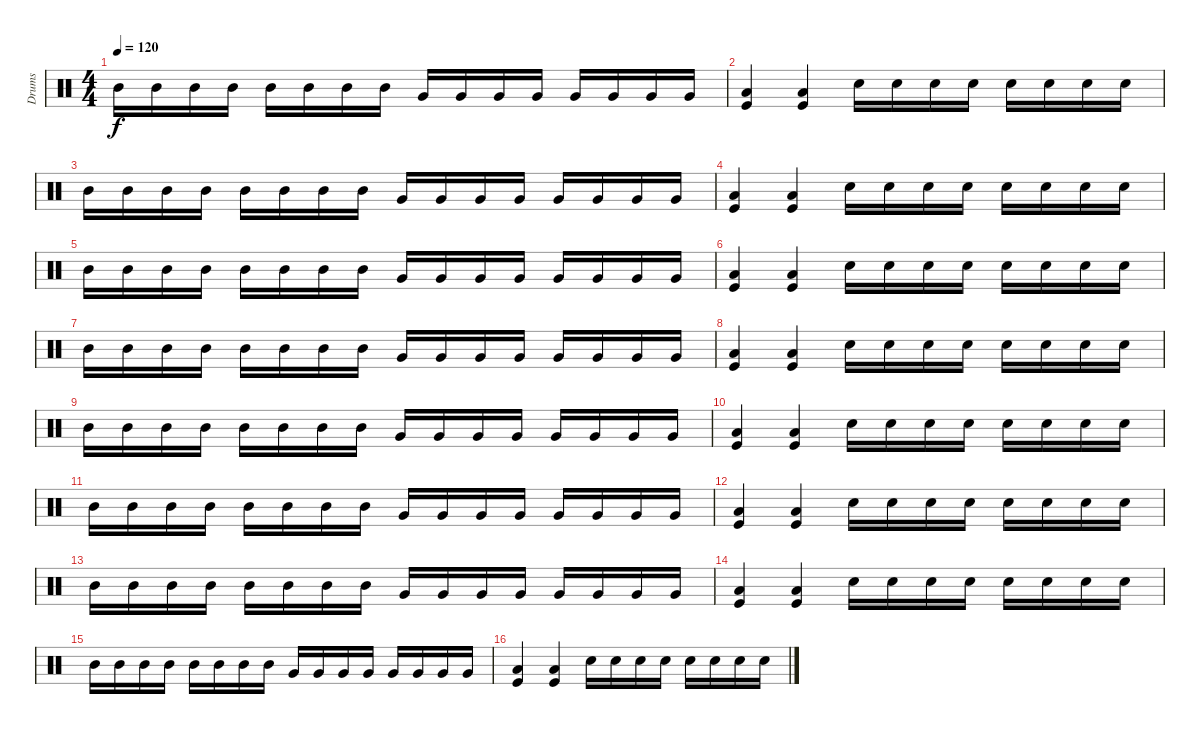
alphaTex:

\track ("Drums" "Drums") {instrument percussion}
\staff {score}
\articulation defaults
\ts (4 4)
\tempo 120
\clef neutral
\ks c "Mid Tom (hit)".16{dy f} "Mid Tom (hit)".16 "Mid Tom (hit)".16 "Mid Tom (hit)".16 "Mid Tom (hit)".16 "Mid Tom (hit)".16 "Mid Tom (hit)".16 "Mid Tom (hit)".16 "Very Low Tom (hit)".16 "Very Low Tom (hit)".16 "Very Low Tom (hit)".16 "Very Low Tom (hit)".16 "Very Low Tom (hit)".16 "Very Low Tom (hit)".16 "Very Low Tom (hit)".16 "Very Low Tom (hit)".16
|
("Kick (hit)" "Low Floor Tom (hit)").4 ("Kick (hit)" "Low Floor Tom (hit)").4 "Electric Snare (hit)".16 "Electric Snare (hit)".16 "Electric Snare (hit)".16 "Electric Snare (hit)".16 "Electric Snare (hit)".16 "Electric Snare (hit)".16 "Electric Snare (hit)".16 "Electric Snare (hit)".16 |
"Mid Tom (hit)".16 "Mid Tom (hit)".16 "Mid Tom (hit)".16 "Mid Tom (hit)".16 "Mid Tom (hit)".16 "Mid Tom (hit)".16 "Mid Tom (hit)".16 "Mid Tom (hit)".16 "Very Low Tom (hit)".16 "Very Low Tom (hit)".16 "Very Low Tom (hit)".16 "Very Low Tom (hit)".16 "Very Low Tom (hit)".16 "Very Low Tom (hit)".16 "Very Low Tom (hit)".16 "Very Low Tom (hit)".16 |
("Kick (hit)" "Low Floor Tom (hit)").4 ("Kick (hit)" "Low Floor Tom (hit)").4 "Electric Snare (hit)".16 "Electric Snare (hit)".16 "Electric Snare (hit)".16 "Electric Snare (hit)".16 "Electric Snare (hit)".16 "Electric Snare (hit)".16 "Electric Snare (hit)".16 "Electric Snare (hit)".16 |
"Mid Tom (hit)".16 "Mid Tom (hit)".16 "Mid Tom (hit)".16 "Mid Tom (hit)".16 "Mid Tom (hit)".16 "Mid Tom (hit)".16 "Mid Tom (hit)".16 "Mid Tom (hit)".16 "Very Low Tom (hit)".16 "Very Low Tom (hit)".16 "Very Low Tom (hit)".16 "Very Low Tom (hit)".16 "Very Low Tom (hit)".16 "Very Low Tom (hit)".16 "Very Low Tom (hit)".16 "Very Low Tom (hit)".16 |
("Kick (hit)" "Low Floor Tom (hit)").4 ("Kick (hit)" "Low Floor Tom (hit)").4 "Electric Snare (hit)".16 "Electric Snare (hit)".16 "Electric Snare (hit)".16 "Electric Snare (hit)".16 "Electric Snare (hit)".16 "Electric Snare (hit)".16 "Electric Snare (hit)".16 "Electric Snare (hit)".16 |
"Mid Tom (hit)".16 "Mid Tom (hit)".16 "Mid Tom (hit)".16 "Mid Tom (hit)".16 "Mid Tom (hit)".16 "Mid Tom (hit)".16 "Mid Tom (hit)".16 "Mid Tom (hit)".16 "Very Low Tom (hit)".16 "Very Low Tom (hit)".16 "Very Low Tom (hit)".16 "Very Low Tom (hit)".16 "Very Low Tom (hit)".16 "Very Low Tom (hit)".16 "Very Low Tom (hit)".16 "Very Low Tom (hit)".16 |
("Kick (hit)" "Low Floor Tom (hit)").4 ("Kick (hit)" "Low Floor Tom (hit)").4 "Electric Snare (hit)".16 "Electric Snare (hit)".16 "Electric Snare (hit)".16 "Electric Snare (hit)".16 "Electric Snare (hit)".16 "Electric Snare (hit)".16 "Electric Snare (hit)".16 "Electric Snare (hit)".16 |
"Mid Tom (hit)".16 "Mid Tom (hit)".16 "Mid Tom (hit)".16 "Mid Tom (hit)".16 "Mid Tom (hit)".16 "Mid Tom (hit)".16 "Mid Tom (hit)".16 "Mid Tom (hit)".16 "Very Low Tom (hit)".16 "Very Low Tom (hit)".16 "Very Low Tom (hit)".16 "Very Low Tom (hit)".16 "Very Low Tom (hit)".16 "Very Low Tom (hit)".16 "Very Low Tom (hit)".16 "Very Low Tom (hit)".16 |
("Kick (hit)" "Low Floor Tom (hit)").4 ("Kick (hit)" "Low Floor Tom (hit)").4 "Electric Snare (hit)".16 "Electric Snare (hit)".16 "Electric Snare (hit)".16 "Electric Snare (hit)".16 "Electric Snare (hit)".16 "Electric Snare (hit)".16 "Electric Snare (hit)".16 "Electric Snare (hit)".16 |
"Mid Tom (hit)".16 "Mid Tom (hit)".16 "Mid Tom (hit)".16 "Mid Tom (hit)".16 "Mid Tom (hit)".16 "Mid Tom (hit)".16 "Mid Tom (hit)".16 "Mid Tom (hit)".16 "Very Low Tom (hit)".16 "Very Low Tom (hit)".16 "Very Low Tom (hit)".16 "Very Low Tom (hit)".16 "Very Low Tom (hit)".16 "Very Low Tom (hit)".16 "Very Low Tom (hit)".16 "Very Low Tom (hit)".16 |
("Kick (hit)" "Low Floor Tom (hit)").4 ("Kick (hit)" "Low Floor Tom (hit)").4 "Electric Snare (hit)".16 "Electric Snare (hit)".16 "Electric Snare (hit)".16 "Electric Snare (hit)".16 "Electric Snare (hit)".16 "Electric Snare (hit)".16 "Electric Snare (hit)".16 "Electric Snare (hit)".16 |
"Mid Tom (hit)".16 "Mid Tom (hit)".16 "Mid Tom (hit)".16 "Mid Tom (hit)".16 "Mid Tom (hit)".16 "Mid Tom (hit)".16 "Mid Tom (hit)".16 "Mid Tom (hit)".16 "Very Low Tom (hit)".16 "Very Low Tom (hit)".16 "Very Low Tom (hit)".16 "Very Low Tom (hit)".16 "Very Low Tom (hit)".16 "Very Low Tom (hit)".16 "Very Low Tom (hit)".16 "Very Low Tom (hit)".16 |
("Kick (hit)" "Low Floor Tom (hit)").4 ("Kick (hit)" "Low Floor Tom (hit)").4 "Electric Snare (hit)".16 "Electric Snare (hit)".16 "Electric Snare (hit)".16 "Electric Snare (hit)".16 "Electric Snare (hit)".16 "Electric Snare (hit)".16 "Electric Snare (hit)".16 "Electric Snare (hit)".16 |
"Mid Tom (hit)".16 "Mid Tom (hit)".16 "Mid Tom (hit)".16 "Mid Tom (hit)".16 "Mid Tom (hit)".16 "Mid Tom (hit)".16 "Mid Tom (hit)".16 "Mid Tom (hit)".16 "Very Low Tom (hit)".16 "Very Low Tom (hit)".16 "Very Low Tom (hit)".16 "Very Low Tom (hit)".16 "Very Low Tom (hit)".16 "Very Low Tom (hit)".16 "Very Low Tom (hit)".16 "Very Low Tom (hit)".16 |
("Kick (hit)" "Low Floor Tom (hit)").4 ("Kick (hit)" "Low Floor Tom (hit)").4 "Electric Snare (hit)".16 "Electric Snare (hit)".16 "Electric Snare (hit)".16 "Electric Snare (hit)".16 "Electric Snare (hit)".16 "Electric Snare (hit)".16 "Electric Snare (hit)".16 "Electric Snare (hit)".16
